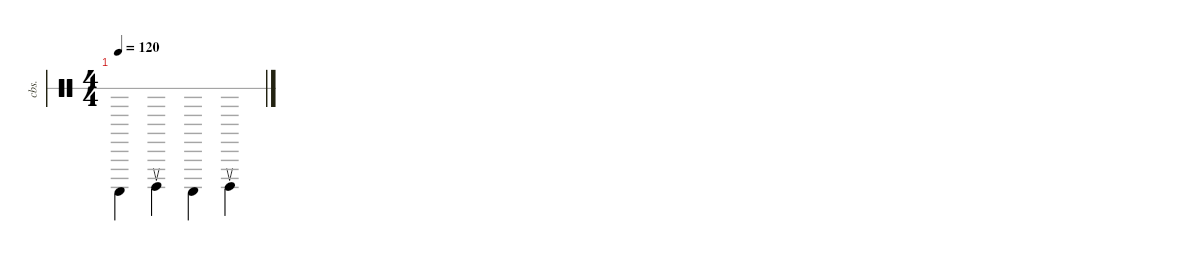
\defaultSystemsLayout 4
\hideDynamics
\bracketExtendMode nobrackets
\otherSystemsTrackNameOrientation horizontal
\track ("Single Line" "cbs.") {instrument percussion}
\staff {score 1}
\articulation defaults
\ts (4 4)
\tempo 120
\clef neutral
\ks c "Cabasa (hit)".4{dy mf beam Down} "Cabasa (return)".4{beam Down} "Cabasa (hit)".4{beam Down} "Cabasa (return)".4{beam Down}
